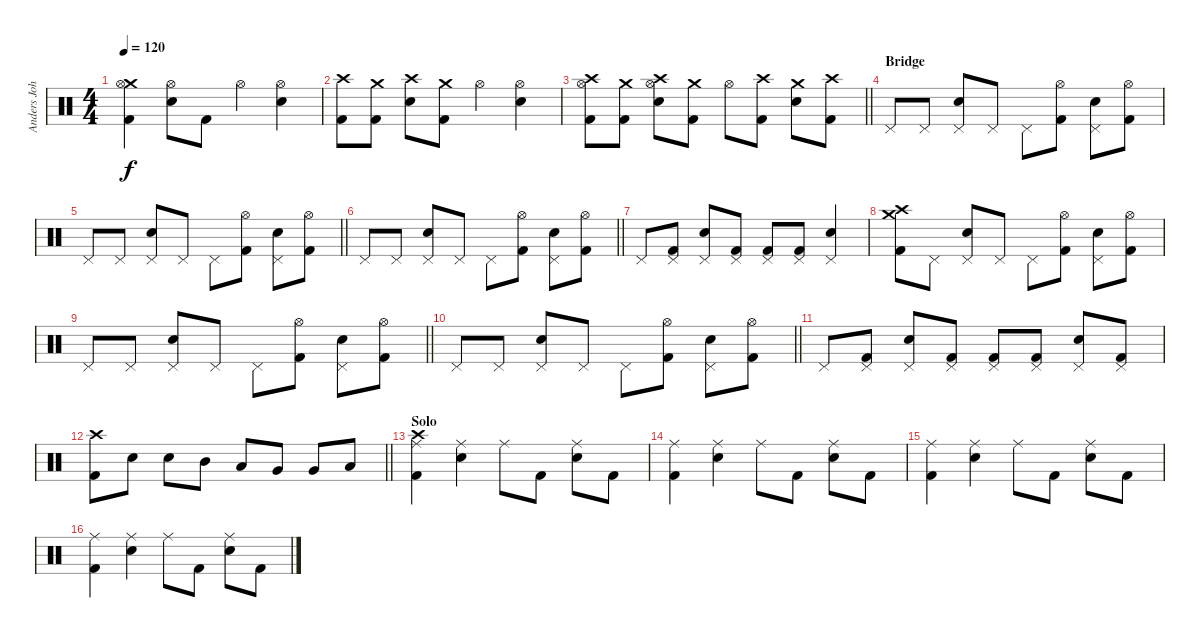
\track ("Anders Johansson" "Anders Joh") {instrument percussion}
\staff {score}
\articulation defaults
\ts (4 4)
\tempo 120
\clef neutral
\ks c
("Crash medium (hit)" "Hi-Hat (open)" "Kick (hit) 2").4{dy f} ("Hi-Hat (open)" "Snare (hit) 2").8 "Kick (hit) 2".8 "Hi-Hat (open)".4 ("Hi-Hat (open)" "Snare (hit) 2").4 |
("Crash high (hit)" "Kick (hit) 2").8 ("Crash medium (hit)" "Kick (hit) 2").8 ("Crash high (hit)" "Snare (hit) 2").8 ("Crash medium (hit)" "Kick (hit) 2").8 "Hi-Hat (open)".4 ("Hi-Hat (open)" "Snare (hit) 2").4 |
\barLineRight lightlight
("Crash high (hit)" "Hi-Hat (open)" "Kick (hit) 2").8 ("Crash medium (hit)" "Kick (hit) 2").8 ("Crash high (hit)" "Hi-Hat (open)" "Snare (hit) 2").8 ("Crash medium (hit)" "Kick (hit) 2").8 "Hi-Hat (open)".8 ("Crash high (hit)" "Kick (hit) 2").8 ("Crash medium (hit)" "Snare (hit) 2").8 ("Crash high (hit)" "Kick (hit) 2").8 |
\section ("" "Bridge")
"Pedal Hi-Hat (hit)".8 "Pedal Hi-Hat (hit)".8 ("Pedal Hi-Hat (hit)" "Snare (hit) 2").8 "Pedal Hi-Hat (hit)".8 "Pedal Hi-Hat (hit)".8 ("Hi-Hat (open)" "Kick (hit) 2").8 ("Pedal Hi-Hat (hit)" "Snare (hit) 2").8 ("Hi-Hat (open)" "Kick (hit) 2").8 |
\barLineRight lightlight "Pedal Hi-Hat (hit)".8 "Pedal Hi-Hat (hit)".8
("Pedal Hi-Hat (hit)" "Snare (hit) 2").8 "Pedal Hi-Hat (hit)".8 "Pedal Hi-Hat (hit)".8 ("Hi-Hat (open)" "Kick (hit) 2").8 ("Pedal Hi-Hat (hit)" "Snare (hit) 2").8 ("Hi-Hat (open)" "Kick (hit) 2").8 |
\barLineRight lightlight "Pedal Hi-Hat (hit)".8 "Pedal Hi-Hat (hit)".8
("Pedal Hi-Hat (hit)" "Snare (hit) 2").8 "Pedal Hi-Hat (hit)".8 "Pedal Hi-Hat (hit)".8 ("Hi-Hat (open)" "Kick (hit) 2").8 ("Pedal Hi-Hat (hit)" "Snare (hit) 2").8 ("Hi-Hat (open)" "Kick (hit) 2").8 |
"Pedal Hi-Hat (hit)".8 ("Pedal Hi-Hat (hit)" "Kick (hit) 2").8 ("Pedal Hi-Hat (hit)" "Snare (hit) 2").8 ("Pedal Hi-Hat (hit)" "Kick (hit) 2").8 ("Pedal Hi-Hat (hit)" "Kick (hit) 2").8 ("Pedal Hi-Hat (hit)" "Kick (hit) 2").8 ("Pedal Hi-Hat (hit)" "Snare (hit) 2").4 |
("Crash high (hit)" "Crash medium (hit)" "Kick (hit) 2").8 "Pedal Hi-Hat (hit)".8 ("Pedal Hi-Hat (hit)" "Snare (hit) 2").8 "Pedal Hi-Hat (hit)".8 "Pedal Hi-Hat (hit)".8 ("Hi-Hat (open)" "Kick (hit) 2").8 ("Pedal Hi-Hat (hit)" "Snare (hit) 2").8 ("Hi-Hat (open)" "Kick (hit) 2").8 |
\barLineRight lightlight "Pedal Hi-Hat (hit)".8 "Pedal Hi-Hat (hit)".8
("Pedal Hi-Hat (hit)" "Snare (hit) 2").8 "Pedal Hi-Hat (hit)".8 "Pedal Hi-Hat (hit)".8 ("Hi-Hat (open)" "Kick (hit) 2").8 ("Pedal Hi-Hat (hit)" "Snare (hit) 2").8 ("Hi-Hat (open)" "Kick (hit) 2").8 |
\barLineRight lightlight "Pedal Hi-Hat (hit)".8 "Pedal Hi-Hat (hit)".8
("Pedal Hi-Hat (hit)" "Snare (hit) 2").8 "Pedal Hi-Hat (hit)".8 "Pedal Hi-Hat (hit)".8 ("Hi-Hat (open)" "Kick (hit) 2").8 ("Pedal Hi-Hat (hit)" "Snare (hit) 2").8 ("Hi-Hat (open)" "Kick (hit) 2").8 |
"Pedal Hi-Hat (hit)".8 ("Pedal Hi-Hat (hit)" "Kick (hit) 2").8 ("Pedal Hi-Hat (hit)" "Snare (hit) 2").8 ("Pedal Hi-Hat (hit)" "Kick (hit) 2").8 ("Pedal Hi-Hat (hit)" "Kick (hit) 2").8 ("Pedal Hi-Hat (hit)" "Kick (hit) 2").8 ("Pedal Hi-Hat (hit)" "Snare (hit) 2").8 ("Pedal Hi-Hat (hit)" "Kick (hit) 2").8 |
\barLineRight lightlight
("Crash high (hit)" "Kick (hit) 2").8 "Snare (hit) 2".8 "Snare (hit) 2".8 "Mid Tom (hit)".8 "Low Tom (hit)".8 "Very Low Tom (hit)".8 "Very Low Tom (hit)".8 "Low Floor Tom (hit)".8 |
\section ("" "Solo")
("Crash high (hit)" "Ride (middle)" "Kick (hit) 2").4 ("Ride (middle)" "Snare (hit) 2").4 "Ride (middle)".8 "Kick (hit) 2".8 ("Ride (middle)" "Snare (hit) 2").8 "Kick (hit) 2".8 |
("Ride (middle)" "Kick (hit) 2").4 ("Ride (middle)" "Snare (hit) 2").4 "Ride (middle)".8 "Kick (hit) 2".8 ("Ride (middle)" "Snare (hit) 2").8 "Kick (hit) 2".8 |
("Ride (middle)" "Kick (hit) 2").4 ("Ride (middle)" "Snare (hit) 2").4 "Ride (middle)".8 "Kick (hit) 2".8 ("Ride (middle)" "Snare (hit) 2").8 "Kick (hit) 2".8 |
("Ride (middle)" "Kick (hit) 2").4 ("Ride (middle)" "Snare (hit) 2").4 "Ride (middle)".8 "Kick (hit) 2".8 ("Ride (middle)" "Snare (hit) 2").8 "Kick (hit) 2".8
